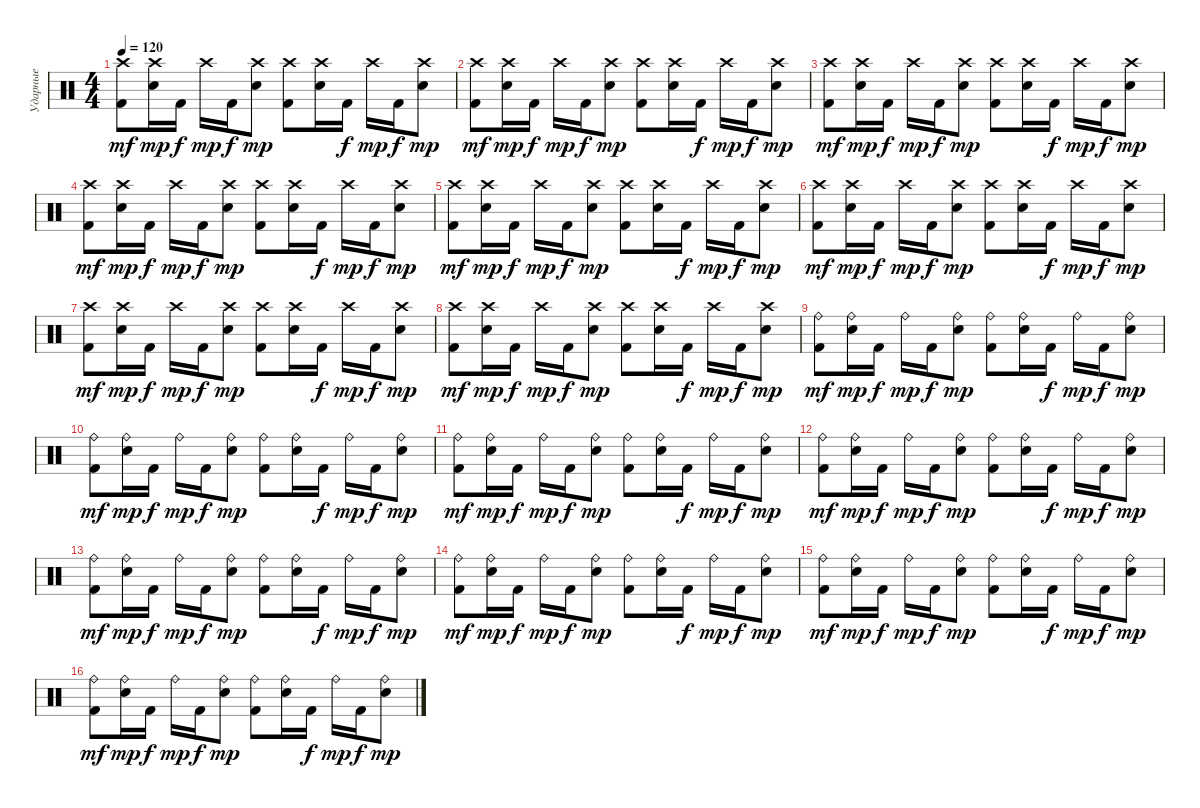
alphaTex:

\track ("Ударные" "Ударные") {instrument percussion}
\staff {score}
\articulation defaults
\ts (4 4)
\tempo 120
\clef neutral
\ks c
("Crash high (hit)" "Kick (hit) 2").8{dy mf} ("Crash high (hit)" "Electric Snare (hit)").16{dy mp} "Kick (hit) 2".16{dy f} "Crash high (hit)".16{dy mp} "Kick (hit) 2".16{dy f} ("Crash high (hit)" "Electric Snare (hit)").8{dy mp} ("Crash high (hit)" "Kick (hit) 2").8 ("Crash high (hit)" "Electric Snare (hit)").16 "Kick (hit) 2".16{dy f} "Crash high (hit)".16{dy mp} "Kick (hit) 2".16{dy f} ("Crash high (hit)" "Electric Snare (hit)").8{dy mp} |
("Crash high (hit)" "Kick (hit) 2").8{dy mf} ("Crash high (hit)" "Electric Snare (hit)").16{dy mp} "Kick (hit) 2".16{dy f} "Crash high (hit)".16{dy mp} "Kick (hit) 2".16{dy f} ("Crash high (hit)" "Electric Snare (hit)").8{dy mp} ("Crash high (hit)" "Kick (hit) 2").8 ("Crash high (hit)" "Electric Snare (hit)").16 "Kick (hit) 2".16{dy f} "Crash high (hit)".16{dy mp} "Kick (hit) 2".16{dy f} ("Crash high (hit)" "Electric Snare (hit)").8{dy mp} |
("Crash high (hit)" "Kick (hit) 2").8{dy mf} ("Crash high (hit)" "Electric Snare (hit)").16{dy mp} "Kick (hit) 2".16{dy f} "Crash high (hit)".16{dy mp} "Kick (hit) 2".16{dy f} ("Crash high (hit)" "Electric Snare (hit)").8{dy mp} ("Crash high (hit)" "Kick (hit) 2").8 ("Crash high (hit)" "Electric Snare (hit)").16 "Kick (hit) 2".16{dy f} "Crash high (hit)".16{dy mp} "Kick (hit) 2".16{dy f} ("Crash high (hit)" "Electric Snare (hit)").8{dy mp} |
("Crash high (hit)" "Kick (hit) 2").8{dy mf} ("Crash high (hit)" "Electric Snare (hit)").16{dy mp} "Kick (hit) 2".16{dy f} "Crash high (hit)".16{dy mp} "Kick (hit) 2".16{dy f} ("Crash high (hit)" "Electric Snare (hit)").8{dy mp} ("Crash high (hit)" "Kick (hit) 2").8 ("Crash high (hit)" "Electric Snare (hit)").16 "Kick (hit) 2".16{dy f} "Crash high (hit)".16{dy mp} "Kick (hit) 2".16{dy f} ("Crash high (hit)" "Electric Snare (hit)").8{dy mp} |
("Crash high (hit)" "Kick (hit) 2").8{dy mf} ("Crash high (hit)" "Electric Snare (hit)").16{dy mp} "Kick (hit) 2".16{dy f} "Crash high (hit)".16{dy mp} "Kick (hit) 2".16{dy f} ("Crash high (hit)" "Electric Snare (hit)").8{dy mp} ("Crash high (hit)" "Kick (hit) 2").8 ("Crash high (hit)" "Electric Snare (hit)").16 "Kick (hit) 2".16{dy f} "Crash high (hit)".16{dy mp} "Kick (hit) 2".16{dy f} ("Crash high (hit)" "Electric Snare (hit)").8{dy mp} |
("Crash high (hit)" "Kick (hit) 2").8{dy mf} ("Crash high (hit)" "Electric Snare (hit)").16{dy mp} "Kick (hit) 2".16{dy f} "Crash high (hit)".16{dy mp} "Kick (hit) 2".16{dy f} ("Crash high (hit)" "Electric Snare (hit)").8{dy mp} ("Crash high (hit)" "Kick (hit) 2").8 ("Crash high (hit)" "Electric Snare (hit)").16 "Kick (hit) 2".16{dy f} "Crash high (hit)".16{dy mp} "Kick (hit) 2".16{dy f} ("Crash high (hit)" "Electric Snare (hit)").8{dy mp} |
("Crash high (hit)" "Kick (hit) 2").8{dy mf} ("Crash high (hit)" "Electric Snare (hit)").16{dy mp} "Kick (hit) 2".16{dy f} "Crash high (hit)".16{dy mp} "Kick (hit) 2".16{dy f} ("Crash high (hit)" "Electric Snare (hit)").8{dy mp} ("Crash high (hit)" "Kick (hit) 2").8 ("Crash high (hit)" "Electric Snare (hit)").16 "Kick (hit) 2".16{dy f} "Crash high (hit)".16{dy mp} "Kick (hit) 2".16{dy f} ("Crash high (hit)" "Electric Snare (hit)").8{dy mp} |
("Crash high (hit)" "Kick (hit) 2").8{dy mf} ("Crash high (hit)" "Electric Snare (hit)").16{dy mp} "Kick (hit) 2".16{dy f} "Crash high (hit)".16{dy mp} "Kick (hit) 2".16{dy f} ("Crash high (hit)" "Electric Snare (hit)").8{dy mp} ("Crash high (hit)" "Kick (hit) 2").8 ("Crash high (hit)" "Electric Snare (hit)").16 "Kick (hit) 2".16{dy f} "Crash high (hit)".16{dy mp} "Kick (hit) 2".16{dy f} ("Crash high (hit)" "Electric Snare (hit)").8{dy mp} |
("Ride (bell)" "Kick (hit) 2").8{dy mf} ("Ride (bell)" "Electric Snare (hit)").16{dy mp} "Kick (hit) 2".16{dy f} "Ride (bell)".16{dy mp} "Kick (hit) 2".16{dy f} ("Ride (bell)" "Electric Snare (hit)").8{dy mp} ("Ride (bell)" "Kick (hit) 2").8 ("Ride (bell)" "Electric Snare (hit)").16 "Kick (hit) 2".16{dy f} "Ride (bell)".16{dy mp} "Kick (hit) 2".16{dy f} ("Ride (bell)" "Electric Snare (hit)").8{dy mp} |
("Ride (bell)" "Kick (hit) 2").8{dy mf} ("Ride (bell)" "Electric Snare (hit)").16{dy mp} "Kick (hit) 2".16{dy f} "Ride (bell)".16{dy mp} "Kick (hit) 2".16{dy f} ("Ride (bell)" "Electric Snare (hit)").8{dy mp} ("Ride (bell)" "Kick (hit) 2").8 ("Ride (bell)" "Electric Snare (hit)").16 "Kick (hit) 2".16{dy f} "Ride (bell)".16{dy mp} "Kick (hit) 2".16{dy f} ("Ride (bell)" "Electric Snare (hit)").8{dy mp} |
("Ride (bell)" "Kick (hit) 2").8{dy mf} ("Ride (bell)" "Electric Snare (hit)").16{dy mp} "Kick (hit) 2".16{dy f} "Ride (bell)".16{dy mp} "Kick (hit) 2".16{dy f} ("Ride (bell)" "Electric Snare (hit)").8{dy mp} ("Ride (bell)" "Kick (hit) 2").8 ("Ride (bell)" "Electric Snare (hit)").16 "Kick (hit) 2".16{dy f} "Ride (bell)".16{dy mp} "Kick (hit) 2".16{dy f} ("Ride (bell)" "Electric Snare (hit)").8{dy mp} |
("Ride (bell)" "Kick (hit) 2").8{dy mf} ("Ride (bell)" "Electric Snare (hit)").16{dy mp} "Kick (hit) 2".16{dy f} "Ride (bell)".16{dy mp} "Kick (hit) 2".16{dy f} ("Ride (bell)" "Electric Snare (hit)").8{dy mp} ("Ride (bell)" "Kick (hit) 2").8 ("Ride (bell)" "Electric Snare (hit)").16 "Kick (hit) 2".16{dy f} "Ride (bell)".16{dy mp} "Kick (hit) 2".16{dy f} ("Ride (bell)" "Electric Snare (hit)").8{dy mp} |
("Ride (bell)" "Kick (hit) 2").8{dy mf} ("Ride (bell)" "Electric Snare (hit)").16{dy mp} "Kick (hit) 2".16{dy f} "Ride (bell)".16{dy mp} "Kick (hit) 2".16{dy f} ("Ride (bell)" "Electric Snare (hit)").8{dy mp} ("Ride (bell)" "Kick (hit) 2").8 ("Ride (bell)" "Electric Snare (hit)").16 "Kick (hit) 2".16{dy f} "Ride (bell)".16{dy mp} "Kick (hit) 2".16{dy f} ("Ride (bell)" "Electric Snare (hit)").8{dy mp} |
("Ride (bell)" "Kick (hit) 2").8{dy mf} ("Ride (bell)" "Electric Snare (hit)").16{dy mp} "Kick (hit) 2".16{dy f} "Ride (bell)".16{dy mp} "Kick (hit) 2".16{dy f} ("Ride (bell)" "Electric Snare (hit)").8{dy mp} ("Ride (bell)" "Kick (hit) 2").8 ("Ride (bell)" "Electric Snare (hit)").16 "Kick (hit) 2".16{dy f} "Ride (bell)".16{dy mp} "Kick (hit) 2".16{dy f} ("Ride (bell)" "Electric Snare (hit)").8{dy mp} |
("Ride (bell)" "Kick (hit) 2").8{dy mf} ("Ride (bell)" "Electric Snare (hit)").16{dy mp} "Kick (hit) 2".16{dy f} "Ride (bell)".16{dy mp} "Kick (hit) 2".16{dy f} ("Ride (bell)" "Electric Snare (hit)").8{dy mp} ("Ride (bell)" "Kick (hit) 2").8 ("Ride (bell)" "Electric Snare (hit)").16 "Kick (hit) 2".16{dy f} "Ride (bell)".16{dy mp} "Kick (hit) 2".16{dy f} ("Ride (bell)" "Electric Snare (hit)").8{dy mp} |
("Ride (bell)" "Kick (hit) 2").8{dy mf} ("Ride (bell)" "Electric Snare (hit)").16{dy mp} "Kick (hit) 2".16{dy f} "Ride (bell)".16{dy mp} "Kick (hit) 2".16{dy f} ("Ride (bell)" "Electric Snare (hit)").8{dy mp} ("Ride (bell)" "Kick (hit) 2").8 ("Ride (bell)" "Electric Snare (hit)").16 "Kick (hit) 2".16{dy f} "Ride (bell)".16{dy mp} "Kick (hit) 2".16{dy f} ("Ride (bell)" "Electric Snare (hit)").8{dy mp}
